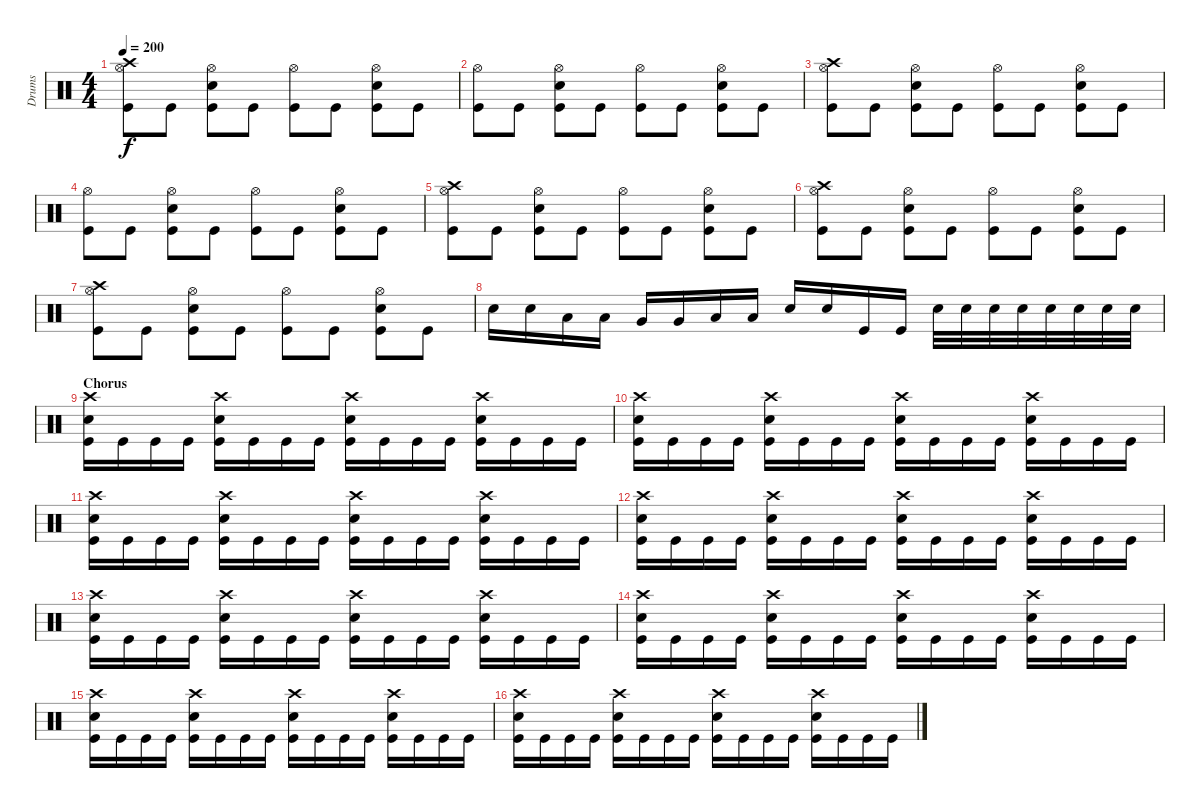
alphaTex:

\track ("Drums" "Drums") {instrument percussion}
\staff {score}
\articulation defaults
\ts (4 4)
\tempo 200
\clef neutral
\ks c
("Crash high (hit)" "Hi-Hat (open)" "Kick (hit)").8{dy f} "Kick (hit)".8 ("Hi-Hat (open)" "Snare (hit) 2" "Kick (hit)").8 "Kick (hit)".8 ("Hi-Hat (open)" "Kick (hit)").8 "Kick (hit)".8 ("Hi-Hat (open)" "Snare (hit) 2" "Kick (hit)").8 "Kick (hit)".8 |
("Hi-Hat (open)" "Kick (hit)").8 "Kick (hit)".8 ("Hi-Hat (open)" "Snare (hit) 2" "Kick (hit)").8 "Kick (hit)".8 ("Hi-Hat (open)" "Kick (hit)").8 "Kick (hit)".8 ("Hi-Hat (open)" "Snare (hit) 2" "Kick (hit)").8 "Kick (hit)".8 |
("Crash high (hit)" "Hi-Hat (open)" "Kick (hit)").8 "Kick (hit)".8 ("Hi-Hat (open)" "Snare (hit) 2" "Kick (hit)").8 "Kick (hit)".8 ("Hi-Hat (open)" "Kick (hit)").8 "Kick (hit)".8 ("Hi-Hat (open)" "Snare (hit) 2" "Kick (hit)").8 "Kick (hit)".8 |
("Hi-Hat (open)" "Kick (hit)").8 "Kick (hit)".8 ("Hi-Hat (open)" "Snare (hit) 2" "Kick (hit)").8 "Kick (hit)".8 ("Hi-Hat (open)" "Kick (hit)").8 "Kick (hit)".8 ("Hi-Hat (open)" "Snare (hit) 2" "Kick (hit)").8 "Kick (hit)".8 |
("Crash high (hit)" "Hi-Hat (open)" "Kick (hit)").8 "Kick (hit)".8 ("Hi-Hat (open)" "Snare (hit) 2" "Kick (hit)").8 "Kick (hit)".8 ("Hi-Hat (open)" "Kick (hit)").8 "Kick (hit)".8 ("Hi-Hat (open)" "Snare (hit) 2" "Kick (hit)").8 "Kick (hit)".8 |
("Crash high (hit)" "Hi-Hat (open)" "Kick (hit)").8 "Kick (hit)".8 ("Hi-Hat (open)" "Snare (hit) 2" "Kick (hit)").8 "Kick (hit)".8 ("Hi-Hat (open)" "Kick (hit)").8 "Kick (hit)".8 ("Hi-Hat (open)" "Snare (hit) 2" "Kick (hit)").8 "Kick (hit)".8 |
("Crash high (hit)" "Hi-Hat (open)" "Kick (hit)").8 "Kick (hit)".8 ("Hi-Hat (open)" "Snare (hit) 2" "Kick (hit)").8 "Kick (hit)".8 ("Hi-Hat (open)" "Kick (hit)").8 "Kick (hit)".8 ("Hi-Hat (open)" "Snare (hit) 2" "Kick (hit)").8 "Kick (hit)".8 |
"Snare (hit) 2".16 "Snare (hit) 2".16 "Low Tom (hit)".16 "Low Tom (hit)".16 "Very Low Tom (hit)".16 "Very Low Tom (hit)".16 "Low Floor Tom (hit)".16 "Low Floor Tom (hit)".16 "Snare (hit) 2".16 "Snare (hit) 2".16 "Kick (hit)".16 "Kick (hit)".16 "Snare (hit) 2".32 "Snare (hit) 2".32 "Snare (hit) 2".32 "Snare (hit) 2".32 "Snare (hit) 2".32 "Snare (hit) 2".32 "Snare (hit) 2".32 "Snare (hit) 2".32 |
\section ("" "Chorus")
("Crash high (hit)" "Snare (hit) 2" "Kick (hit)").16 "Kick (hit)".16 "Kick (hit)".16 "Kick (hit)".16 ("Crash high (hit)" "Snare (hit) 2" "Kick (hit)").16 "Kick (hit)".16 "Kick (hit)".16 "Kick (hit)".16 ("Crash high (hit)" "Snare (hit) 2" "Kick (hit)").16 "Kick (hit)".16 "Kick (hit)".16 "Kick (hit)".16 ("Crash high (hit)" "Snare (hit) 2" "Kick (hit)").16 "Kick (hit)".16 "Kick (hit)".16 "Kick (hit)".16 |
("Crash high (hit)" "Snare (hit) 2" "Kick (hit)").16 "Kick (hit)".16 "Kick (hit)".16 "Kick (hit)".16 ("Crash high (hit)" "Snare (hit) 2" "Kick (hit)").16 "Kick (hit)".16 "Kick (hit)".16 "Kick (hit)".16 ("Crash high (hit)" "Snare (hit) 2" "Kick (hit)").16 "Kick (hit)".16 "Kick (hit)".16 "Kick (hit)".16 ("Crash high (hit)" "Snare (hit) 2" "Kick (hit)").16 "Kick (hit)".16 "Kick (hit)".16 "Kick (hit)".16 |
("Crash high (hit)" "Snare (hit) 2" "Kick (hit)").16 "Kick (hit)".16 "Kick (hit)".16 "Kick (hit)".16 ("Crash high (hit)" "Snare (hit) 2" "Kick (hit)").16 "Kick (hit)".16 "Kick (hit)".16 "Kick (hit)".16 ("Crash high (hit)" "Snare (hit) 2" "Kick (hit)").16 "Kick (hit)".16 "Kick (hit)".16 "Kick (hit)".16 ("Crash high (hit)" "Snare (hit) 2" "Kick (hit)").16 "Kick (hit)".16 "Kick (hit)".16 "Kick (hit)".16 |
("Crash high (hit)" "Snare (hit) 2" "Kick (hit)").16 "Kick (hit)".16 "Kick (hit)".16 "Kick (hit)".16 ("Crash high (hit)" "Snare (hit) 2" "Kick (hit)").16 "Kick (hit)".16 "Kick (hit)".16 "Kick (hit)".16 ("Crash high (hit)" "Snare (hit) 2" "Kick (hit)").16 "Kick (hit)".16 "Kick (hit)".16 "Kick (hit)".16 ("Crash high (hit)" "Snare (hit) 2" "Kick (hit)").16 "Kick (hit)".16 "Kick (hit)".16 "Kick (hit)".16 |
("Crash high (hit)" "Snare (hit) 2" "Kick (hit)").16 "Kick (hit)".16 "Kick (hit)".16 "Kick (hit)".16 ("Crash high (hit)" "Snare (hit) 2" "Kick (hit)").16 "Kick (hit)".16 "Kick (hit)".16 "Kick (hit)".16 ("Crash high (hit)" "Snare (hit) 2" "Kick (hit)").16 "Kick (hit)".16 "Kick (hit)".16 "Kick (hit)".16 ("Crash high (hit)" "Snare (hit) 2" "Kick (hit)").16 "Kick (hit)".16 "Kick (hit)".16 "Kick (hit)".16 |
("Crash high (hit)" "Snare (hit) 2" "Kick (hit)").16 "Kick (hit)".16 "Kick (hit)".16 "Kick (hit)".16 ("Crash high (hit)" "Snare (hit) 2" "Kick (hit)").16 "Kick (hit)".16 "Kick (hit)".16 "Kick (hit)".16 ("Crash high (hit)" "Snare (hit) 2" "Kick (hit)").16 "Kick (hit)".16 "Kick (hit)".16 "Kick (hit)".16 ("Crash high (hit)" "Snare (hit) 2" "Kick (hit)").16 "Kick (hit)".16 "Kick (hit)".16 "Kick (hit)".16 |
("Crash high (hit)" "Snare (hit) 2" "Kick (hit)").16 "Kick (hit)".16 "Kick (hit)".16 "Kick (hit)".16 ("Crash high (hit)" "Snare (hit) 2" "Kick (hit)").16 "Kick (hit)".16 "Kick (hit)".16 "Kick (hit)".16 ("Crash high (hit)" "Snare (hit) 2" "Kick (hit)").16 "Kick (hit)".16 "Kick (hit)".16 "Kick (hit)".16 ("Crash high (hit)" "Snare (hit) 2" "Kick (hit)").16 "Kick (hit)".16 "Kick (hit)".16 "Kick (hit)".16 |
("Crash high (hit)" "Snare (hit) 2" "Kick (hit)").16 "Kick (hit)".16 "Kick (hit)".16 "Kick (hit)".16 ("Crash high (hit)" "Snare (hit) 2" "Kick (hit)").16 "Kick (hit)".16 "Kick (hit)".16 "Kick (hit)".16 ("Crash high (hit)" "Snare (hit) 2" "Kick (hit)").16 "Kick (hit)".16 "Kick (hit)".16 "Kick (hit)".16 ("Crash high (hit)" "Snare (hit) 2" "Kick (hit)").16 "Kick (hit)".16 "Kick (hit)".16 "Kick (hit)".16
